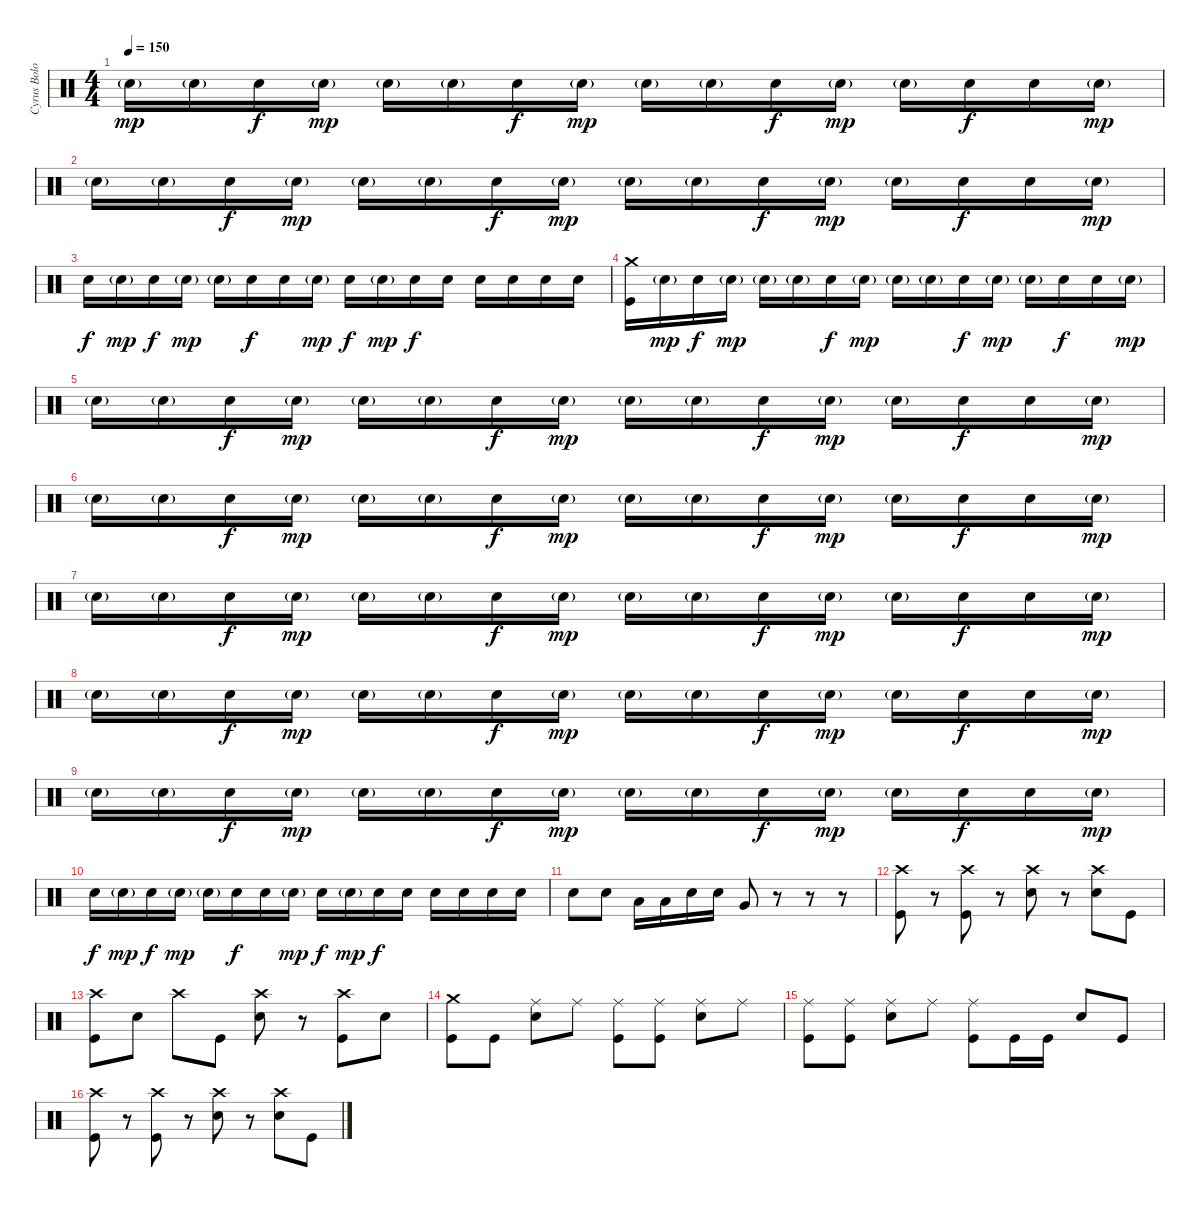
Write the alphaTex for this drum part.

\track ("Cyrus Bolooki - Drums" "Cyrus Bolo") {instrument percussion}
\staff {score}
\articulation defaults
\ts (4 4)
\tempo 150
\clef neutral
\ks c "Electric Snare (hit)"{g}.16{dy mp} "Electric Snare (hit)"{g}.16 "Electric Snare (hit)".16{dy f} "Electric Snare (hit)"{g}.16{dy mp} "Electric Snare (hit)"{g}.16 "Electric Snare (hit)"{g}.16 "Electric Snare (hit)".16{dy f} "Electric Snare (hit)"{g}.16{dy mp} "Electric Snare (hit)"{g}.16 "Electric Snare (hit)"{g}.16 "Electric Snare (hit)".16{dy f} "Electric Snare (hit)"{g}.16{dy mp} "Electric Snare (hit)"{g}.16 "Electric Snare (hit)".16{dy f} "Electric Snare (hit)".16 "Electric Snare (hit)"{g}.16{dy mp}
|
"Electric Snare (hit)"{g}.16 "Electric Snare (hit)"{g}.16 "Electric Snare (hit)".16{dy f} "Electric Snare (hit)"{g}.16{dy mp} "Electric Snare (hit)"{g}.16 "Electric Snare (hit)"{g}.16 "Electric Snare (hit)".16{dy f} "Electric Snare (hit)"{g}.16{dy mp} "Electric Snare (hit)"{g}.16 "Electric Snare (hit)"{g}.16 "Electric Snare (hit)".16{dy f} "Electric Snare (hit)"{g}.16{dy mp} "Electric Snare (hit)"{g}.16 "Electric Snare (hit)".16{dy f} "Electric Snare (hit)".16 "Electric Snare (hit)"{g}.16{dy mp} |
"Electric Snare (hit)".16{dy f} "Electric Snare (hit)"{g}.16{dy mp} "Electric Snare (hit)".16{dy f} "Electric Snare (hit)"{g}.16{dy mp} "Electric Snare (hit)"{g}.16 "Electric Snare (hit)".16{dy f} "Electric Snare (hit)".16 "Electric Snare (hit)"{g}.16{dy mp} "Electric Snare (hit)".16{dy f} "Electric Snare (hit)"{g}.16{dy mp} "Electric Snare (hit)".16{dy f} "Electric Snare (hit)".16 "Electric Snare (hit)".16 "Electric Snare (hit)".16 "Electric Snare (hit)".16 "Electric Snare (hit)".16 |
("Crash medium (hit)" "Kick (hit)").16 "Electric Snare (hit)"{g}.16{dy mp} "Electric Snare (hit)".16{dy f} "Electric Snare (hit)"{g}.16{dy mp} "Electric Snare (hit)"{g}.16 "Electric Snare (hit)"{g}.16 "Electric Snare (hit)".16{dy f} "Electric Snare (hit)"{g}.16{dy mp} "Electric Snare (hit)"{g}.16 "Electric Snare (hit)"{g}.16 "Electric Snare (hit)".16{dy f} "Electric Snare (hit)"{g}.16{dy mp} "Electric Snare (hit)"{g}.16 "Electric Snare (hit)".16{dy f} "Electric Snare (hit)".16 "Electric Snare (hit)"{g}.16{dy mp} |
"Electric Snare (hit)"{g}.16 "Electric Snare (hit)"{g}.16 "Electric Snare (hit)".16{dy f} "Electric Snare (hit)"{g}.16{dy mp} "Electric Snare (hit)"{g}.16 "Electric Snare (hit)"{g}.16 "Electric Snare (hit)".16{dy f} "Electric Snare (hit)"{g}.16{dy mp} "Electric Snare (hit)"{g}.16 "Electric Snare (hit)"{g}.16 "Electric Snare (hit)".16{dy f} "Electric Snare (hit)"{g}.16{dy mp} "Electric Snare (hit)"{g}.16 "Electric Snare (hit)".16{dy f} "Electric Snare (hit)".16 "Electric Snare (hit)"{g}.16{dy mp} |
"Electric Snare (hit)"{g}.16 "Electric Snare (hit)"{g}.16 "Electric Snare (hit)".16{dy f} "Electric Snare (hit)"{g}.16{dy mp} "Electric Snare (hit)"{g}.16 "Electric Snare (hit)"{g}.16 "Electric Snare (hit)".16{dy f} "Electric Snare (hit)"{g}.16{dy mp} "Electric Snare (hit)"{g}.16 "Electric Snare (hit)"{g}.16 "Electric Snare (hit)".16{dy f} "Electric Snare (hit)"{g}.16{dy mp} "Electric Snare (hit)"{g}.16 "Electric Snare (hit)".16{dy f} "Electric Snare (hit)".16 "Electric Snare (hit)"{g}.16{dy mp} |
"Electric Snare (hit)"{g}.16 "Electric Snare (hit)"{g}.16 "Electric Snare (hit)".16{dy f} "Electric Snare (hit)"{g}.16{dy mp} "Electric Snare (hit)"{g}.16 "Electric Snare (hit)"{g}.16 "Electric Snare (hit)".16{dy f} "Electric Snare (hit)"{g}.16{dy mp} "Electric Snare (hit)"{g}.16 "Electric Snare (hit)"{g}.16 "Electric Snare (hit)".16{dy f} "Electric Snare (hit)"{g}.16{dy mp} "Electric Snare (hit)"{g}.16 "Electric Snare (hit)".16{dy f} "Electric Snare (hit)".16 "Electric Snare (hit)"{g}.16{dy mp} |
"Electric Snare (hit)"{g}.16 "Electric Snare (hit)"{g}.16 "Electric Snare (hit)".16{dy f} "Electric Snare (hit)"{g}.16{dy mp} "Electric Snare (hit)"{g}.16 "Electric Snare (hit)"{g}.16 "Electric Snare (hit)".16{dy f} "Electric Snare (hit)"{g}.16{dy mp} "Electric Snare (hit)"{g}.16 "Electric Snare (hit)"{g}.16 "Electric Snare (hit)".16{dy f} "Electric Snare (hit)"{g}.16{dy mp} "Electric Snare (hit)"{g}.16 "Electric Snare (hit)".16{dy f} "Electric Snare (hit)".16 "Electric Snare (hit)"{g}.16{dy mp} |
"Electric Snare (hit)"{g}.16 "Electric Snare (hit)"{g}.16 "Electric Snare (hit)".16{dy f} "Electric Snare (hit)"{g}.16{dy mp} "Electric Snare (hit)"{g}.16 "Electric Snare (hit)"{g}.16 "Electric Snare (hit)".16{dy f} "Electric Snare (hit)"{g}.16{dy mp} "Electric Snare (hit)"{g}.16 "Electric Snare (hit)"{g}.16 "Electric Snare (hit)".16{dy f} "Electric Snare (hit)"{g}.16{dy mp} "Electric Snare (hit)"{g}.16 "Electric Snare (hit)".16{dy f} "Electric Snare (hit)".16 "Electric Snare (hit)"{g}.16{dy mp} |
"Electric Snare (hit)".16{dy f} "Electric Snare (hit)"{g}.16{dy mp} "Electric Snare (hit)".16{dy f} "Electric Snare (hit)"{g}.16{dy mp} "Electric Snare (hit)"{g}.16 "Electric Snare (hit)".16{dy f} "Electric Snare (hit)".16 "Electric Snare (hit)"{g}.16{dy mp} "Electric Snare (hit)".16{dy f} "Electric Snare (hit)"{g}.16{dy mp} "Electric Snare (hit)".16{dy f} "Electric Snare (hit)".16 "Electric Snare (hit)".16 "Electric Snare (hit)".16 "Electric Snare (hit)".16 "Electric Snare (hit)".16 |
"Electric Snare (hit)".8 "Electric Snare (hit)".8 "Low Floor Tom (hit)".16 "Low Floor Tom (hit)".16 "Electric Snare (hit)".16 "Electric Snare (hit)".16 "Very Low Tom (hit)".8 r.8 r.8 r.8 |
("Crash high (hit)" "Kick (hit)").8 r.8 ("Crash high (hit)" "Kick (hit)").8 r.8 ("Crash high (hit)" "Electric Snare (hit)").8 r.8 ("Crash high (hit)" "Electric Snare (hit)").8 "Kick (hit)".8 |
("Crash high (hit)" "Kick (hit)").8 "Electric Snare (hit)".8 "Crash high (hit)".8 "Kick (hit)".8 ("Crash high (hit)" "Electric Snare (hit)").8 r.8 ("Crash high (hit)" "Kick (hit)").8 "Electric Snare (hit)".8 |
("Crash medium (hit)" "Kick (hit)").8 "Kick (hit)".8 ("Ride (middle)" "Electric Snare (hit)").8 "Ride (middle)".8 ("Ride (middle)" "Kick (hit)").8 ("Ride (middle)" "Kick (hit)").8 ("Ride (middle)" "Electric Snare (hit)").8 "Ride (middle)".8 |
("Ride (middle)" "Kick (hit)").8 ("Ride (middle)" "Kick (hit)").8 ("Ride (middle)" "Electric Snare (hit)").8 "Ride (middle)".8 ("Ride (middle)" "Kick (hit)").8 "Kick (hit)".16 "Kick (hit)".16 "Electric Snare (hit)".8 "Kick (hit)".8 |
("Crash high (hit)" "Kick (hit)").8 r.8 ("Crash high (hit)" "Kick (hit)").8 r.8 ("Crash high (hit)" "Electric Snare (hit)").8 r.8 ("Crash high (hit)" "Electric Snare (hit)").8 "Kick (hit)".8
